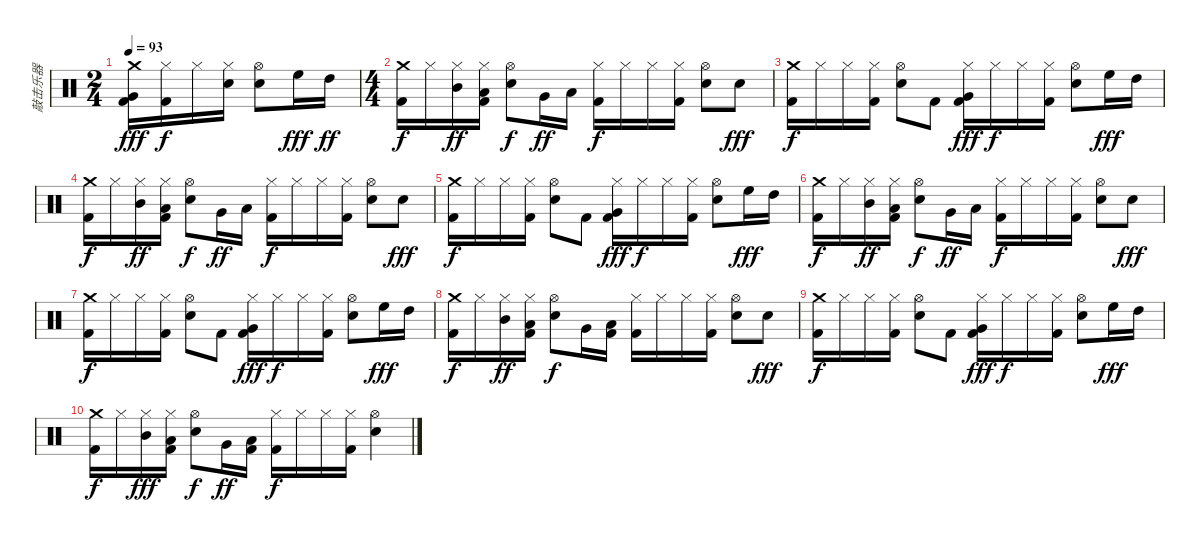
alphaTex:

\track ("敲击乐器" "敲击乐器") {instrument percussion}
\staff {score}
\articulation defaults
\ts (2 4)
\tempo 93
\clef neutral
\ks c
("Crash medium (hit)" "Very Low Tom (hit)" "Kick (hit) 2").16{dy fff} ("Hi-Hat (closed)" "Kick (hit) 2").16{dy f} "Hi-Hat (closed)".16 ("Hi-Hat (closed)" "Metronome (bell)").16 ("Hi-Hat (open)" "Metronome (bell)").8 "High Floor Tom (hit)".16{dy fff} "High Tom (hit)".16{dy ff} |
\ts (4 4)
("Crash medium (hit)" "Kick (hit) 2").16{dy f} "Hi-Hat (closed)".16 ("Hi-Hat (closed)" "Mid Tom (hit)").16{dy ff} ("Hi-Hat (closed)" "Low Tom (hit)" "Kick (hit) 2").16 ("Hi-Hat (open)" "Metronome (bell)").8{dy f} "Very Low Tom (hit)".16{dy ff} "Low Floor Tom (hit)".16 ("Hi-Hat (closed)" "Kick (hit) 2").16{dy f} "Hi-Hat (closed)".16 "Hi-Hat (closed)".16 ("Hi-Hat (closed)" "Kick (hit) 2").16 ("Hi-Hat (open)" "Metronome (bell)").8 "Hand Clap (hit)".8{dy fff} |
("Crash medium (hit)" "Kick (hit) 2").16{dy f} "Hi-Hat (closed)".16 "Hi-Hat (closed)".16 ("Hi-Hat (closed)" "Kick (hit) 2").16 ("Hi-Hat (open)" "Metronome (bell)").8 "Kick (hit) 2".8 ("Hi-Hat (closed)" "Very Low Tom (hit)" "Kick (hit) 2").16{dy fff} "Hi-Hat (closed)".16{dy f} "Hi-Hat (closed)".16 ("Hi-Hat (closed)" "Kick (hit) 2").16 ("Hi-Hat (open)" "Metronome (bell)").8 "High Floor Tom (hit)".16{dy fff} "High Tom (hit)".16 |
("Crash medium (hit)" "Kick (hit) 2").16{dy f} "Hi-Hat (closed)".16 ("Hi-Hat (closed)" "Mid Tom (hit)").16{dy ff} ("Hi-Hat (closed)" "Low Tom (hit)" "Kick (hit) 2").16 ("Hi-Hat (open)" "Metronome (bell)").8{dy f} "Very Low Tom (hit)".16{dy ff} "Low Floor Tom (hit)".16 ("Hi-Hat (closed)" "Kick (hit) 2").16{dy f} "Hi-Hat (closed)".16 "Hi-Hat (closed)".16 ("Hi-Hat (closed)" "Kick (hit) 2").16 ("Hi-Hat (open)" "Metronome (bell)").8 "Hand Clap (hit)".8{dy fff} |
("Crash medium (hit)" "Kick (hit) 2").16{dy f} "Hi-Hat (closed)".16 "Hi-Hat (closed)".16 ("Hi-Hat (closed)" "Kick (hit) 2").16 ("Hi-Hat (open)" "Metronome (bell)").8 "Kick (hit) 2".8 ("Hi-Hat (closed)" "Very Low Tom (hit)" "Kick (hit) 2").16{dy fff} "Hi-Hat (closed)".16{dy f} "Hi-Hat (closed)".16 ("Hi-Hat (closed)" "Kick (hit) 2").16 ("Hi-Hat (open)" "Metronome (bell)").8 "High Floor Tom (hit)".16{dy fff} "High Tom (hit)".16 |
("Crash medium (hit)" "Kick (hit) 2").16{dy f} "Hi-Hat (closed)".16 ("Hi-Hat (closed)" "Mid Tom (hit)").16{dy ff} ("Hi-Hat (closed)" "Low Tom (hit)" "Kick (hit) 2").16 ("Hi-Hat (open)" "Metronome (bell)").8{dy f} "Very Low Tom (hit)".16{dy ff} "Low Floor Tom (hit)".16 ("Hi-Hat (closed)" "Kick (hit) 2").16{dy f} "Hi-Hat (closed)".16 "Hi-Hat (closed)".16 ("Hi-Hat (closed)" "Kick (hit) 2").16 ("Hi-Hat (open)" "Metronome (bell)").8 "Hand Clap (hit)".8{dy fff} |
("Crash medium (hit)" "Kick (hit) 2").16{dy f} "Hi-Hat (closed)".16 "Hi-Hat (closed)".16 ("Hi-Hat (closed)" "Kick (hit) 2").16 ("Hi-Hat (open)" "Metronome (bell)").8 "Kick (hit) 2".8 ("Hi-Hat (closed)" "Very Low Tom (hit)" "Kick (hit) 2").16{dy fff volume 12} "Hi-Hat (closed)".16{dy f} "Hi-Hat (closed)".16 ("Hi-Hat (closed)" "Kick (hit) 2").16 ("Hi-Hat (open)" "Metronome (bell)").8{volume 11} "High Floor Tom (hit)".16{dy fff} "High Tom (hit)".16 |
("Crash medium (hit)" "Kick (hit) 2").16{dy f volume 10} "Hi-Hat (closed)".16 ("Hi-Hat (closed)" "Mid Tom (hit)").16{dy ff} ("Hi-Hat (closed)" "Low Tom (hit)" "Kick (hit) 2").16 ("Hi-Hat (open)" "Metronome (bell)").8{dy f volume 9} "Very Low Tom (hit)".16 ("Low Floor Tom (hit)" "Kick (hit) 2").16 ("Hi-Hat (closed)" "Kick (hit) 2").16{volume 8} "Hi-Hat (closed)".16 "Hi-Hat (closed)".16 ("Hi-Hat (closed)" "Kick (hit) 2").16 ("Hi-Hat (open)" "Metronome (bell)").8{volume 7} "Hand Clap (hit)".8{dy fff} |
("Crash medium (hit)" "Kick (hit) 2").16{dy f volume 6} "Hi-Hat (closed)".16 "Hi-Hat (closed)".16 ("Hi-Hat (closed)" "Kick (hit) 2").16 ("Hi-Hat (open)" "Metronome (bell)").8{volume 5} "Kick (hit) 2".8 ("Hi-Hat (closed)" "Very Low Tom (hit)" "Kick (hit) 2").16{dy fff volume 4} "Hi-Hat (closed)".16{dy f} "Hi-Hat (closed)".16 ("Hi-Hat (closed)" "Kick (hit) 2").16 ("Hi-Hat (open)" "Metronome (bell)").8{volume 3} "High Floor Tom (hit)".16{dy fff} "High Tom (hit)".16 |
("Crash medium (hit)" "Kick (hit) 2").16{dy f volume 2} "Hi-Hat (closed)".16 ("Hi-Hat (closed)" "Mid Tom (hit)").16{dy fff} ("Hi-Hat (closed)" "Low Tom (hit)" "Kick (hit) 2").16 ("Hi-Hat (open)" "Metronome (bell)").8{dy f volume 1} "Very Low Tom (hit)".16{dy ff} ("Low Floor Tom (hit)" "Kick (hit) 2").16 ("Hi-Hat (closed)" "Kick (hit) 2").16{dy f volume 0} "Hi-Hat (closed)".16 "Hi-Hat (closed)".16 ("Hi-Hat (closed)" "Kick (hit) 2").16 ("Hi-Hat (open)" "Metronome (bell)").4
